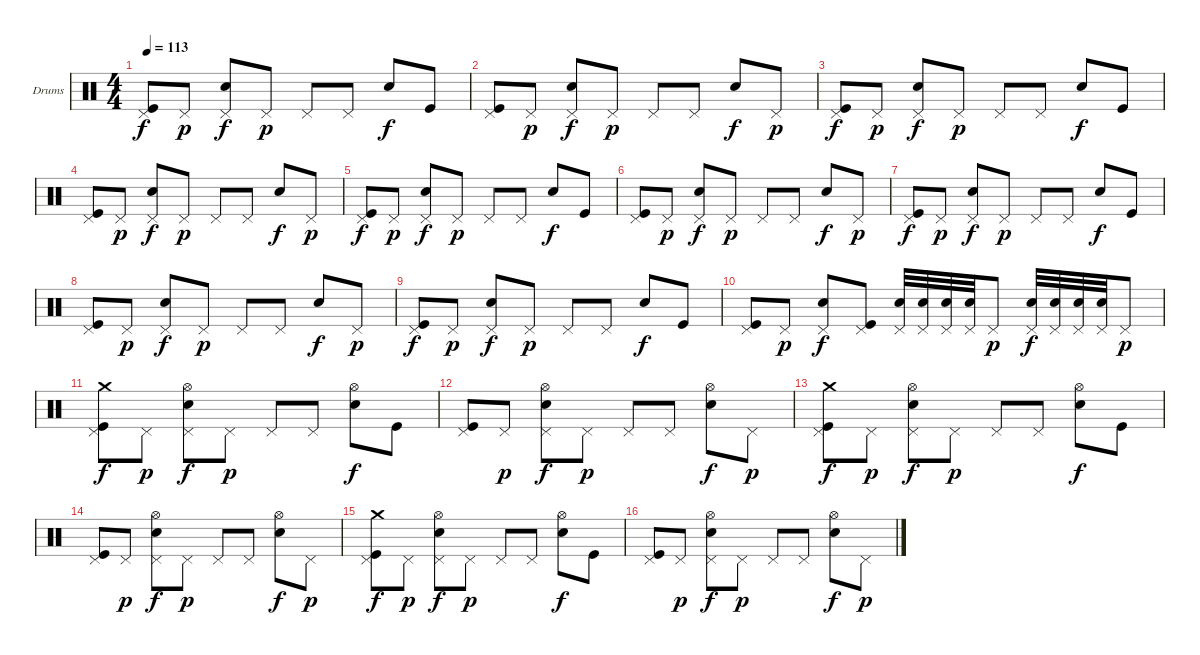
\defaultSystemsLayout 4
\bracketExtendMode groupsimilarinstruments
\firstSystemTrackNameOrientation horizontal
\otherSystemsTrackNameOrientation horizontal
\track ("Е. Кулаков" "Drums") {instrument percussion}
\staff {score}
\articulation defaults
\ts (4 4)
\tempo 113
\clef neutral
\ks c
("Kick (hit)" "Pedal Hi-Hat (hit)").8{dy f} "Pedal Hi-Hat (hit)".8{dy p} ("Snare (hit) 2" "Pedal Hi-Hat (hit)").8{dy f} "Pedal Hi-Hat (hit)".8{dy p} "Pedal Hi-Hat (hit)".8 "Pedal Hi-Hat (hit)".8 "Snare (hit) 2".8{dy f} "Kick (hit)".8 |
("Kick (hit)" "Pedal Hi-Hat (hit)").8 "Pedal Hi-Hat (hit)".8{dy p} ("Snare (hit) 2" "Pedal Hi-Hat (hit)").8{dy f} "Pedal Hi-Hat (hit)".8{dy p} "Pedal Hi-Hat (hit)".8 "Pedal Hi-Hat (hit)".8 "Snare (hit) 2".8{dy f} "Pedal Hi-Hat (hit)".8{dy p} |
("Kick (hit)" "Pedal Hi-Hat (hit)").8{dy f} "Pedal Hi-Hat (hit)".8{dy p} ("Snare (hit) 2" "Pedal Hi-Hat (hit)").8{dy f} "Pedal Hi-Hat (hit)".8{dy p} "Pedal Hi-Hat (hit)".8 "Pedal Hi-Hat (hit)".8 "Snare (hit) 2".8{dy f} "Kick (hit)".8 |
("Kick (hit)" "Pedal Hi-Hat (hit)").8 "Pedal Hi-Hat (hit)".8{dy p} ("Snare (hit) 2" "Pedal Hi-Hat (hit)").8{dy f} "Pedal Hi-Hat (hit)".8{dy p} "Pedal Hi-Hat (hit)".8 "Pedal Hi-Hat (hit)".8 "Snare (hit) 2".8{dy f} "Pedal Hi-Hat (hit)".8{dy p} |
("Kick (hit)" "Pedal Hi-Hat (hit)").8{dy f} "Pedal Hi-Hat (hit)".8{dy p} ("Snare (hit) 2" "Pedal Hi-Hat (hit)").8{dy f} "Pedal Hi-Hat (hit)".8{dy p} "Pedal Hi-Hat (hit)".8 "Pedal Hi-Hat (hit)".8 "Snare (hit) 2".8{dy f} "Kick (hit)".8 |
("Kick (hit)" "Pedal Hi-Hat (hit)").8 "Pedal Hi-Hat (hit)".8{dy p} ("Snare (hit) 2" "Pedal Hi-Hat (hit)").8{dy f} "Pedal Hi-Hat (hit)".8{dy p} "Pedal Hi-Hat (hit)".8 "Pedal Hi-Hat (hit)".8 "Snare (hit) 2".8{dy f} "Pedal Hi-Hat (hit)".8{dy p} |
("Kick (hit)" "Pedal Hi-Hat (hit)").8{dy f} "Pedal Hi-Hat (hit)".8{dy p} ("Snare (hit) 2" "Pedal Hi-Hat (hit)").8{dy f} "Pedal Hi-Hat (hit)".8{dy p} "Pedal Hi-Hat (hit)".8 "Pedal Hi-Hat (hit)".8 "Snare (hit) 2".8{dy f} "Kick (hit)".8 |
("Kick (hit)" "Pedal Hi-Hat (hit)").8 "Pedal Hi-Hat (hit)".8{dy p} ("Snare (hit) 2" "Pedal Hi-Hat (hit)").8{dy f} "Pedal Hi-Hat (hit)".8{dy p} "Pedal Hi-Hat (hit)".8 "Pedal Hi-Hat (hit)".8 "Snare (hit) 2".8{dy f} "Pedal Hi-Hat (hit)".8{dy p} |
("Kick (hit)" "Pedal Hi-Hat (hit)").8{dy f} "Pedal Hi-Hat (hit)".8{dy p} ("Snare (hit) 2" "Pedal Hi-Hat (hit)").8{dy f} "Pedal Hi-Hat (hit)".8{dy p} "Pedal Hi-Hat (hit)".8 "Pedal Hi-Hat (hit)".8 "Snare (hit) 2".8{dy f} "Kick (hit)".8 |
("Kick (hit)" "Pedal Hi-Hat (hit)").8 "Pedal Hi-Hat (hit)".8{dy p} ("Snare (hit) 2" "Pedal Hi-Hat (hit)").8{dy f} ("Kick (hit)" "Pedal Hi-Hat (hit)").8 ("Snare (hit) 2" "Pedal Hi-Hat (hit)").32 ("Snare (hit) 2" "Pedal Hi-Hat (hit)").32 ("Snare (hit) 2" "Pedal Hi-Hat (hit)").32 ("Snare (hit) 2" "Pedal Hi-Hat (hit)").32 "Pedal Hi-Hat (hit)".8{dy p} ("Snare (hit) 2" "Pedal Hi-Hat (hit)").32{dy f} ("Snare (hit) 2" "Pedal Hi-Hat (hit)").32 ("Snare (hit) 2" "Pedal Hi-Hat (hit)").32 ("Snare (hit) 2" "Pedal Hi-Hat (hit)").32 "Pedal Hi-Hat (hit)".8{dy p} |
("Kick (hit)" "Pedal Hi-Hat (hit)" "Crash medium (hit)").8{dy f} "Pedal Hi-Hat (hit)".8{dy p} ("Snare (hit) 2" "Pedal Hi-Hat (hit)" "Hi-Hat (open)").8{dy f} "Pedal Hi-Hat (hit)".8{dy p} "Pedal Hi-Hat (hit)".8 "Pedal Hi-Hat (hit)".8 ("Snare (hit) 2" "Hi-Hat (open)").8{dy f} "Kick (hit)".8 |
("Kick (hit)" "Pedal Hi-Hat (hit)").8 "Pedal Hi-Hat (hit)".8{dy p} ("Snare (hit) 2" "Pedal Hi-Hat (hit)" "Hi-Hat (open)").8{dy f} "Pedal Hi-Hat (hit)".8{dy p} "Pedal Hi-Hat (hit)".8 "Pedal Hi-Hat (hit)".8 ("Snare (hit) 2" "Hi-Hat (open)").8{dy f} "Pedal Hi-Hat (hit)".8{dy p} |
("Kick (hit)" "Pedal Hi-Hat (hit)" "Crash medium (hit)").8{dy f} "Pedal Hi-Hat (hit)".8{dy p} ("Snare (hit) 2" "Pedal Hi-Hat (hit)" "Hi-Hat (open)").8{dy f} "Pedal Hi-Hat (hit)".8{dy p} "Pedal Hi-Hat (hit)".8 "Pedal Hi-Hat (hit)".8 ("Snare (hit) 2" "Hi-Hat (open)").8{dy f} "Kick (hit)".8 |
("Kick (hit)" "Pedal Hi-Hat (hit)").8 "Pedal Hi-Hat (hit)".8{dy p} ("Snare (hit) 2" "Pedal Hi-Hat (hit)" "Hi-Hat (open)").8{dy f} "Pedal Hi-Hat (hit)".8{dy p} "Pedal Hi-Hat (hit)".8 "Pedal Hi-Hat (hit)".8 ("Snare (hit) 2" "Hi-Hat (open)").8{dy f} "Pedal Hi-Hat (hit)".8{dy p} |
("Kick (hit)" "Pedal Hi-Hat (hit)" "Crash medium (hit)").8{dy f} "Pedal Hi-Hat (hit)".8{dy p} ("Snare (hit) 2" "Pedal Hi-Hat (hit)" "Hi-Hat (open)").8{dy f} "Pedal Hi-Hat (hit)".8{dy p} "Pedal Hi-Hat (hit)".8 "Pedal Hi-Hat (hit)".8 ("Snare (hit) 2" "Hi-Hat (open)").8{dy f} "Kick (hit)".8 |
("Kick (hit)" "Pedal Hi-Hat (hit)").8 "Pedal Hi-Hat (hit)".8{dy p} ("Snare (hit) 2" "Pedal Hi-Hat (hit)" "Hi-Hat (open)").8{dy f} "Pedal Hi-Hat (hit)".8{dy p} "Pedal Hi-Hat (hit)".8 "Pedal Hi-Hat (hit)".8 ("Snare (hit) 2" "Hi-Hat (open)").8{dy f} "Pedal Hi-Hat (hit)".8{dy p}
